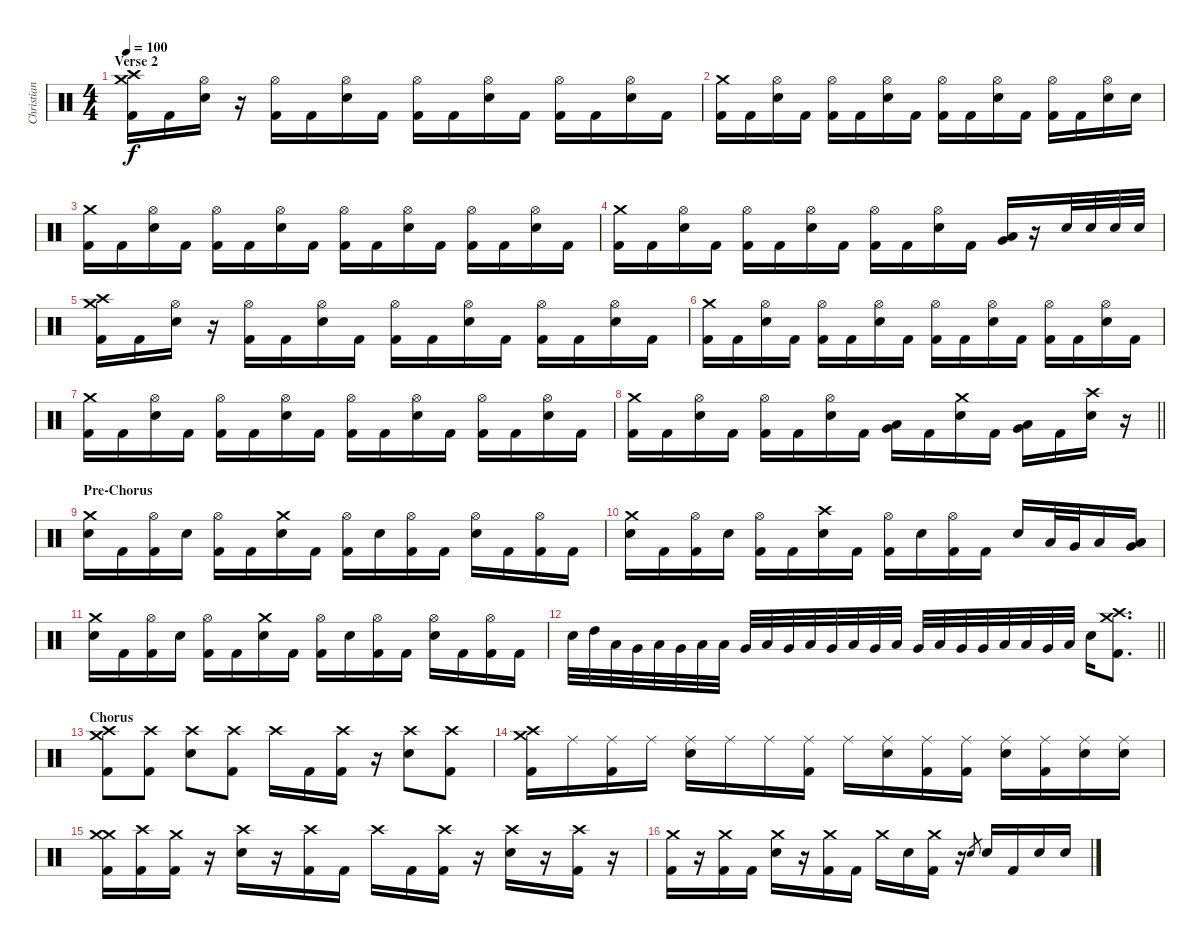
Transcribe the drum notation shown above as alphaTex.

\track ("Christian 'CC' Coma" "Christian ") {instrument percussion}
\staff {score}
\articulation defaults
\ts (4 4)
\section ("" "Verse 2")
\tempo 100
\clef neutral
\ks c
("Crash medium (hit)" "Crash high (hit)" "Kick (hit) 2").16{dy f} "Kick (hit) 2".16 ("Hi-Hat (open)" "Electric Snare (hit)").16 r.16 ("Hi-Hat (open)" "Kick (hit) 2").16 "Kick (hit) 2".16 ("Hi-Hat (open)" "Electric Snare (hit)").16 "Kick (hit) 2".16 ("Hi-Hat (open)" "Kick (hit) 2").16 "Kick (hit) 2".16 ("Hi-Hat (open)" "Electric Snare (hit)").16 "Kick (hit) 2".16 ("Hi-Hat (open)" "Kick (hit) 2").16 "Kick (hit) 2".16 ("Hi-Hat (open)" "Electric Snare (hit)").16 "Kick (hit) 2".16 |
("Crash medium (hit)" "Kick (hit) 2").16 "Kick (hit) 2".16 ("Hi-Hat (open)" "Electric Snare (hit)").16 "Kick (hit) 2".16 ("Hi-Hat (open)" "Kick (hit) 2").16 "Kick (hit) 2".16 ("Hi-Hat (open)" "Electric Snare (hit)").16 "Kick (hit) 2".16 ("Hi-Hat (open)" "Kick (hit) 2").16 "Kick (hit) 2".16 ("Hi-Hat (open)" "Electric Snare (hit)").16 "Kick (hit) 2".16 ("Hi-Hat (open)" "Kick (hit) 2").16 "Kick (hit) 2".16 ("Hi-Hat (open)" "Electric Snare (hit)").16 "Electric Snare (hit)".16 |
("Crash medium (hit)" "Kick (hit) 2").16 "Kick (hit) 2".16 ("Hi-Hat (open)" "Electric Snare (hit)").16 "Kick (hit) 2".16 ("Hi-Hat (open)" "Kick (hit) 2").16 "Kick (hit) 2".16 ("Hi-Hat (open)" "Electric Snare (hit)").16 "Kick (hit) 2".16 ("Hi-Hat (open)" "Kick (hit) 2").16 "Kick (hit) 2".16 ("Hi-Hat (open)" "Electric Snare (hit)").16 "Kick (hit) 2".16 ("Hi-Hat (open)" "Kick (hit) 2").16 "Kick (hit) 2".16 ("Hi-Hat (open)" "Electric Snare (hit)").16 "Kick (hit) 2".16 |
("Crash medium (hit)" "Kick (hit) 2").16 "Kick (hit) 2".16 ("Hi-Hat (open)" "Electric Snare (hit)").16 "Kick (hit) 2".16 ("Hi-Hat (open)" "Kick (hit) 2").16 "Kick (hit) 2".16 ("Hi-Hat (open)" "Electric Snare (hit)").16 "Kick (hit) 2".16 ("Hi-Hat (open)" "Kick (hit) 2").16 "Kick (hit) 2".16 ("Hi-Hat (open)" "Electric Snare (hit)").16 "Kick (hit) 2".16 ("Very Low Tom (hit)" "Low Floor Tom (hit)").16 r.16 "Electric Snare (hit)".32 "Electric Snare (hit)".32 "Electric Snare (hit)".32 "Electric Snare (hit)".32 |
("Crash medium (hit)" "Crash high (hit)" "Kick (hit) 2").16 "Kick (hit) 2".16 ("Hi-Hat (open)" "Electric Snare (hit)").16 r.16 ("Hi-Hat (open)" "Kick (hit) 2").16 "Kick (hit) 2".16 ("Hi-Hat (open)" "Electric Snare (hit)").16 "Kick (hit) 2".16 ("Hi-Hat (open)" "Kick (hit) 2").16 "Kick (hit) 2".16 ("Hi-Hat (open)" "Electric Snare (hit)").16 "Kick (hit) 2".16 ("Hi-Hat (open)" "Kick (hit) 2").16 "Kick (hit) 2".16 ("Hi-Hat (open)" "Electric Snare (hit)").16 "Kick (hit) 2".16 |
("Crash medium (hit)" "Kick (hit) 2").16 "Kick (hit) 2".16 ("Hi-Hat (open)" "Electric Snare (hit)").16 "Kick (hit) 2".16 ("Hi-Hat (open)" "Kick (hit) 2").16 "Kick (hit) 2".16 ("Hi-Hat (open)" "Electric Snare (hit)").16 "Kick (hit) 2".16 ("Hi-Hat (open)" "Kick (hit) 2").16 "Kick (hit) 2".16 ("Hi-Hat (open)" "Electric Snare (hit)").16 "Kick (hit) 2".16 ("Hi-Hat (open)" "Kick (hit) 2").16 "Kick (hit) 2".16 ("Hi-Hat (open)" "Electric Snare (hit)").16 "Kick (hit) 2".16 |
("Crash medium (hit)" "Kick (hit) 2").16 "Kick (hit) 2".16 ("Hi-Hat (open)" "Electric Snare (hit)").16 "Kick (hit) 2".16 ("Hi-Hat (open)" "Kick (hit) 2").16 "Kick (hit) 2".16 ("Hi-Hat (open)" "Electric Snare (hit)").16 "Kick (hit) 2".16 ("Hi-Hat (open)" "Kick (hit) 2").16 "Kick (hit) 2".16 ("Hi-Hat (open)" "Electric Snare (hit)").16 "Kick (hit) 2".16 ("Hi-Hat (open)" "Kick (hit) 2").16 "Kick (hit) 2".16 ("Hi-Hat (open)" "Electric Snare (hit)").16 "Kick (hit) 2".16 |
\barLineRight lightlight
("Crash medium (hit)" "Kick (hit) 2").16 "Kick (hit) 2".16 ("Hi-Hat (open)" "Electric Snare (hit)").16 "Kick (hit) 2".16 ("Hi-Hat (open)" "Kick (hit) 2").16 "Kick (hit) 2".16 ("Hi-Hat (open)" "Electric Snare (hit)").16 "Kick (hit) 2".16 ("Low Floor Tom (hit)" "Very Low Tom (hit)").16 "Kick (hit) 2".16 ("Crash medium (hit)" "Electric Snare (hit)").16 "Kick (hit) 2".16 ("Low Floor Tom (hit)" "Very Low Tom (hit)").16 "Kick (hit) 2".16 ("Crash high (hit)" "Electric Snare (hit)").16 r.16 |
\section ("" "Pre-Chorus")
("Crash medium (hit)" "Electric Snare (hit)").16 "Kick (hit) 2".16 ("Hi-Hat (open)" "Kick (hit) 2").16 "Electric Snare (hit)".16 ("Hi-Hat (open)" "Kick (hit) 2").16 "Kick (hit) 2".16 ("Crash medium (hit)" "Electric Snare (hit)").16 "Kick (hit) 2".16 ("Hi-Hat (open)" "Kick (hit) 2").16 "Electric Snare (hit)".16 ("Hi-Hat (open)" "Kick (hit) 2").16 "Kick (hit) 2".16 ("Hi-Hat (open)" "Electric Snare (hit)").16 "Kick (hit) 2".16 ("Hi-Hat (open)" "Kick (hit) 2").16 "Kick (hit) 2".16 |
("Crash medium (hit)" "Electric Snare (hit)").16 "Kick (hit) 2".16 ("Hi-Hat (open)" "Kick (hit) 2").16 "Electric Snare (hit)".16 ("Hi-Hat (open)" "Kick (hit) 2").16 "Kick (hit) 2".16 ("Crash high (hit)" "Electric Snare (hit)").16 "Kick (hit) 2".16 ("Hi-Hat (open)" "Kick (hit) 2").16 "Electric Snare (hit)".16 ("Hi-Hat (open)" "Kick (hit) 2").16 "Kick (hit) 2".16 "Electric Snare (hit)".16 "Low Tom (hit)".32 "Very Low Tom (hit)".32 "Low Floor Tom (hit)".16 ("Very Low Tom (hit)" "Low Floor Tom (hit)").16 |
("Crash medium (hit)" "Electric Snare (hit)").16 "Kick (hit) 2".16 ("Hi-Hat (open)" "Kick (hit) 2").16 "Electric Snare (hit)".16 ("Hi-Hat (open)" "Kick (hit) 2").16 "Kick (hit) 2".16 ("Crash medium (hit)" "Electric Snare (hit)").16 "Kick (hit) 2".16 ("Hi-Hat (open)" "Kick (hit) 2").16 "Electric Snare (hit)".16 ("Hi-Hat (open)" "Kick (hit) 2").16 "Kick (hit) 2".16 ("Hi-Hat (open)" "Electric Snare (hit)").16 "Kick (hit) 2".16 ("Hi-Hat (open)" "Kick (hit) 2").16 "Kick (hit) 2".16 |
\barLineRight lightlight "Electric Snare (hit)".32 "High Tom (hit)".32 "Low Tom (hit)".32 "Very Low Tom (hit)".32 "Low Tom (hit)".32 "Very Low Tom (hit)".32 "Low Floor Tom (hit)".32 "Low Tom (hit)".32 "Very Low Tom (hit)".32 "Low Floor Tom (hit)".32 "Very Low Tom (hit)".32 "Low Tom (hit)".32 "Very Low Tom (hit)".32 "Low Tom (hit)".32 "Very Low Tom (hit)".32 "Low Tom (hit)".32 "Very Low Tom (hit)".32 "Low Floor Tom (hit)".32 "Very Low Tom (hit)".32 "Very Low Tom (hit)".32 "Low Floor Tom (hit)".32 "Low Floor Tom (hit)".32 "Very Low Tom (hit)".32 "Low Tom (hit)".32 "Electric Snare (hit)".16
("Crash high (hit)" "Crash medium (hit)" "Kick (hit) 2").8{d} |
\section ("" "Chorus")
("Crash high (hit)" "Crash medium (hit)" "Kick (hit) 2").8 ("Crash high (hit)" "Kick (hit) 2").8 ("Crash high (hit)" "Electric Snare (hit)").8 ("Crash high (hit)" "Kick (hit) 2").8 "Crash high (hit)".16 "Kick (hit) 2".16 ("Crash high (hit)" "Kick (hit) 2").16 r.16 ("Crash high (hit)" "Electric Snare (hit)").8 ("Crash high (hit)" "Kick (hit) 2").8 |
("Crash medium (hit)" "Crash high (hit)" "Kick (hit) 2").16 "Ride (middle)".16 ("Ride (middle)" "Kick (hit) 2").16 "Ride (middle)".16 ("Ride (middle)" "Electric Snare (hit)").16 "Ride (middle)".16 "Ride (middle)".16 ("Ride (middle)" "Kick (hit) 2").16 "Ride (middle)".16 ("Ride (middle)" "Electric Snare (hit)").16 ("Ride (middle)" "Kick (hit) 2").16 ("Ride (middle)" "Kick (hit) 2").16 ("Ride (middle)" "Electric Snare (hit)").16 ("Ride (middle)" "Kick (hit) 2").16 ("Ride (middle)" "Electric Snare (hit)").16 ("Ride (middle)" "Electric Snare (hit)").16 |
("Crash medium (hit)" "Crash medium (hit)" "Kick (hit) 2").16 ("Crash high (hit)" "Kick (hit) 2").16 ("Crash medium (hit)" "Kick (hit) 2").16 r.16 ("Crash high (hit)" "Electric Snare (hit)").16 r.16 ("Crash high (hit)" "Kick (hit) 2").16 "Kick (hit) 2".16 "Crash high (hit)".16 "Kick (hit) 2".16 ("Crash high (hit)" "Kick (hit) 2").16 r.16 ("Crash high (hit)" "Electric Snare (hit)").16 r.16 ("Crash high (hit)" "Kick (hit) 2").16 r.16 |
("Crash medium (hit)" "Kick (hit) 2").16 r.16 ("Crash medium (hit)" "Kick (hit) 2").16 "Kick (hit) 2".16 ("Crash medium (hit)" "Electric Snare (hit)").16 r.16 ("Crash medium (hit)" "Kick (hit) 2").16 "Kick (hit) 2".16 "Crash medium (hit)".16 "Electric Snare (hit)".16 ("Crash medium (hit)" "Kick (hit) 2").16 r.16 "Electric Snare (hit)".8{gr} "Electric Snare (hit)".16 "Kick (hit) 2".16 "Electric Snare (hit)".16 "Electric Snare (hit)".16
